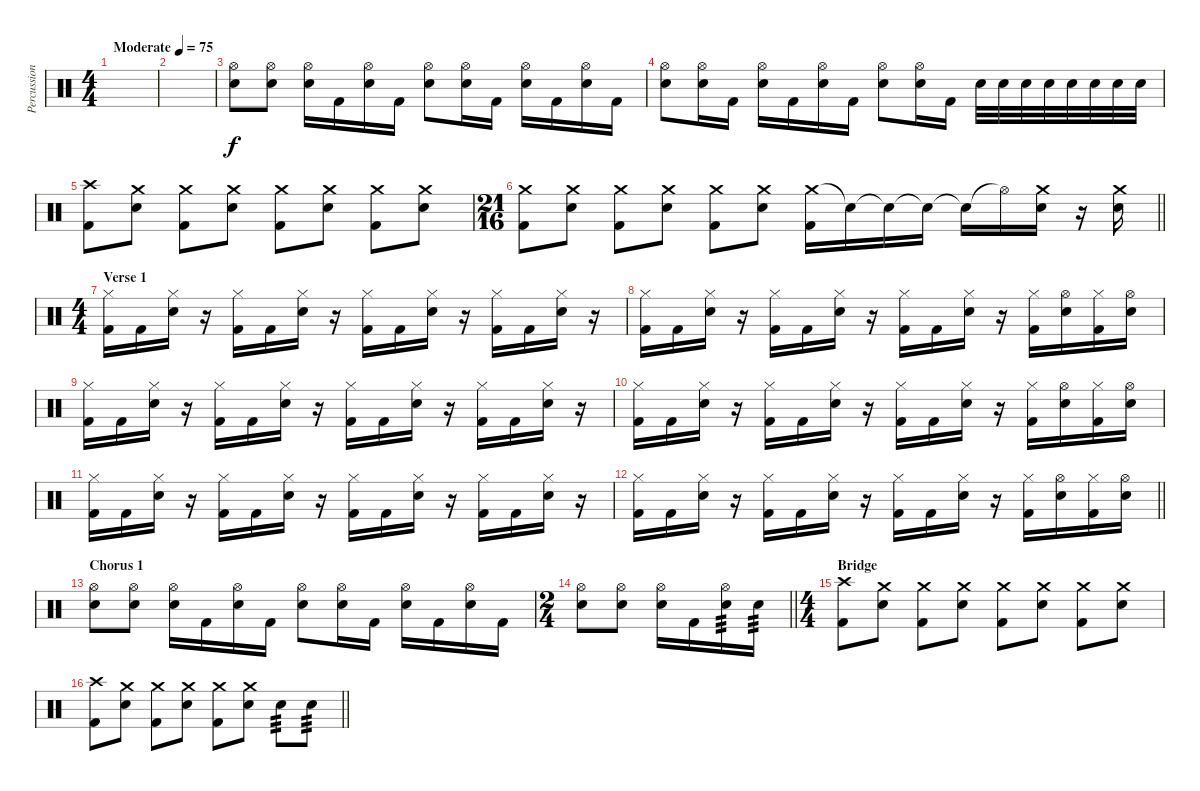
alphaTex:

\track ("Percussion" "Percussion") {instrument percussion}
\staff {score}
\articulation defaults
\ts (4 4)
\tempo (75 "Moderate")
\clef neutral
\ks c
|
|
("Hi-Hat (open)" "Snare (hit) 2").8 ("Hi-Hat (open)" "Snare (hit) 2").8 ("Hi-Hat (open)" "Snare (hit) 2").16 "Kick (hit) 2".16 ("Hi-Hat (open)" "Snare (hit) 2").16 "Kick (hit) 2".16 ("Hi-Hat (open)" "Snare (hit) 2").8 ("Hi-Hat (open)" "Snare (hit) 2").16 "Kick (hit) 2".16 ("Hi-Hat (open)" "Snare (hit) 2").16 "Kick (hit) 2".16 ("Hi-Hat (open)" "Snare (hit) 2").16 "Kick (hit) 2".16 |
("Hi-Hat (open)" "Snare (hit) 2").8 ("Hi-Hat (open)" "Snare (hit) 2").16 "Kick (hit) 2".16 ("Hi-Hat (open)" "Snare (hit) 2").16 "Kick (hit) 2".16 ("Hi-Hat (open)" "Snare (hit) 2").16 "Kick (hit) 2".16 ("Hi-Hat (open)" "Snare (hit) 2").8 ("Hi-Hat (open)" "Snare (hit) 2").16 "Kick (hit) 2".16 "Snare (hit) 2".32 "Snare (hit) 2".32 "Snare (hit) 2".32 "Snare (hit) 2".32 "Snare (hit) 2".32 "Snare (hit) 2".32 "Snare (hit) 2".32 "Snare (hit) 2".32 |
("Crash high (hit)" "Kick (hit) 2").8 ("Crash medium (hit)" "Snare (hit) 2").8 ("Crash medium (hit)" "Kick (hit) 2").8 ("Crash medium (hit)" "Snare (hit) 2").8 ("Crash medium (hit)" "Kick (hit) 2").8 ("Crash medium (hit)" "Snare (hit) 2").8 ("Crash medium (hit)" "Kick (hit) 2").8 ("Crash medium (hit)" "Snare (hit) 2").8 |
\ts (21 16)
\barLineRight lightlight
("Crash medium (hit)" "Kick (hit) 2").8 ("Crash medium (hit)" "Snare (hit) 2").8 ("Crash medium (hit)" "Kick (hit) 2").8 ("Crash medium (hit)" "Snare (hit) 2").8 ("Crash medium (hit)" "Kick (hit) 2").8 ("Crash medium (hit)" "Snare (hit) 2").8 ("Crash medium (hit)" "Kick (hit) 2").16 "Snare (hit)"{t}.16 "Snare (hit)"{t}.16 "Snare (hit)"{t}.16 "Snare (hit)"{t}.16 "Hi-Hat (open)"{t}.16 ("Crash medium (hit)" "Electric Snare (hit)").16 r.16 ("Crash medium (hit)" "Electric Snare (hit)").16 |
\ts (4 4)
\section ("" "Verse 1")
("Hi-Hat (closed)" "Kick (hit) 2").16 "Kick (hit) 2".16 ("Hi-Hat (closed)" "Electric Snare (hit)").16 r.16 ("Hi-Hat (closed)" "Kick (hit) 2").16 "Kick (hit) 2".16 ("Hi-Hat (closed)" "Electric Snare (hit)").16 r.16 ("Hi-Hat (closed)" "Kick (hit) 2").16 "Kick (hit) 2".16 ("Hi-Hat (closed)" "Electric Snare (hit)").16 r.16 ("Hi-Hat (closed)" "Kick (hit) 2").16 "Kick (hit) 2".16 ("Hi-Hat (closed)" "Electric Snare (hit)").16 r.16 |
("Hi-Hat (closed)" "Kick (hit) 2").16 "Kick (hit) 2".16 ("Hi-Hat (closed)" "Electric Snare (hit)").16 r.16 ("Hi-Hat (closed)" "Kick (hit) 2").16 "Kick (hit) 2".16 ("Hi-Hat (closed)" "Electric Snare (hit)").16 r.16 ("Hi-Hat (closed)" "Kick (hit) 2").16 "Kick (hit) 2".16 ("Hi-Hat (closed)" "Electric Snare (hit)").16 r.16 ("Hi-Hat (closed)" "Kick (hit) 2").16 ("Hi-Hat (open)" "Electric Snare (hit)").16 ("Hi-Hat (closed)" "Kick (hit) 2").16 ("Hi-Hat (open)" "Electric Snare (hit)").16 |
("Hi-Hat (closed)" "Kick (hit) 2").16 "Kick (hit) 2".16 ("Hi-Hat (closed)" "Electric Snare (hit)").16 r.16 ("Hi-Hat (closed)" "Kick (hit) 2").16 "Kick (hit) 2".16 ("Hi-Hat (closed)" "Electric Snare (hit)").16 r.16 ("Hi-Hat (closed)" "Kick (hit) 2").16 "Kick (hit) 2".16 ("Hi-Hat (closed)" "Electric Snare (hit)").16 r.16 ("Hi-Hat (closed)" "Kick (hit) 2").16 "Kick (hit) 2".16 ("Hi-Hat (closed)" "Electric Snare (hit)").16 r.16 |
("Hi-Hat (closed)" "Kick (hit) 2").16 "Kick (hit) 2".16 ("Hi-Hat (closed)" "Electric Snare (hit)").16 r.16 ("Hi-Hat (closed)" "Kick (hit) 2").16 "Kick (hit) 2".16 ("Hi-Hat (closed)" "Electric Snare (hit)").16 r.16 ("Hi-Hat (closed)" "Kick (hit) 2").16 "Kick (hit) 2".16 ("Hi-Hat (closed)" "Electric Snare (hit)").16 r.16 ("Hi-Hat (closed)" "Kick (hit) 2").16 ("Hi-Hat (open)" "Electric Snare (hit)").16 ("Hi-Hat (closed)" "Kick (hit) 2").16 ("Hi-Hat (open)" "Electric Snare (hit)").16 |
("Hi-Hat (closed)" "Kick (hit) 2").16 "Kick (hit) 2".16 ("Hi-Hat (closed)" "Electric Snare (hit)").16 r.16 ("Hi-Hat (closed)" "Kick (hit) 2").16 "Kick (hit) 2".16 ("Hi-Hat (closed)" "Electric Snare (hit)").16 r.16 ("Hi-Hat (closed)" "Kick (hit) 2").16 "Kick (hit) 2".16 ("Hi-Hat (closed)" "Electric Snare (hit)").16 r.16 ("Hi-Hat (closed)" "Kick (hit) 2").16 "Kick (hit) 2".16 ("Hi-Hat (closed)" "Electric Snare (hit)").16 r.16 |
\barLineRight lightlight
("Hi-Hat (closed)" "Kick (hit) 2").16 "Kick (hit) 2".16 ("Hi-Hat (closed)" "Electric Snare (hit)").16 r.16 ("Hi-Hat (closed)" "Kick (hit) 2").16 "Kick (hit) 2".16 ("Hi-Hat (closed)" "Electric Snare (hit)").16 r.16 ("Hi-Hat (closed)" "Kick (hit) 2").16 "Kick (hit) 2".16 ("Hi-Hat (closed)" "Electric Snare (hit)").16 r.16 ("Hi-Hat (closed)" "Kick (hit) 2").16 ("Hi-Hat (open)" "Electric Snare (hit)").16 ("Hi-Hat (closed)" "Kick (hit) 2").16 ("Hi-Hat (open)" "Electric Snare (hit)").16 |
\section ("" "Chorus 1")
("Hi-Hat (open)" "Snare (hit) 2").8 ("Hi-Hat (open)" "Snare (hit) 2").8 ("Hi-Hat (open)" "Snare (hit) 2").16 "Kick (hit) 2".16 ("Hi-Hat (open)" "Snare (hit) 2").16 "Kick (hit) 2".16 ("Hi-Hat (open)" "Snare (hit) 2").8 ("Hi-Hat (open)" "Snare (hit) 2").16 "Kick (hit) 2".16 ("Hi-Hat (open)" "Snare (hit) 2").16 "Kick (hit) 2".16 ("Hi-Hat (open)" "Snare (hit) 2").16 "Kick (hit) 2".16 |
\ts (2 4)
\barLineRight lightlight
("Hi-Hat (open)" "Snare (hit) 2").8 ("Hi-Hat (open)" "Snare (hit) 2").8 ("Hi-Hat (open)" "Snare (hit) 2").16 "Kick (hit) 2".16 ("Hi-Hat (open)" "Snare (hit) 2").16{tp 3} "Snare (hit) 2".16{tp 3} |
\ts (4 4)
\section ("" "Bridge")
("Crash high (hit)" "Kick (hit) 2").8 ("Crash medium (hit)" "Snare (hit) 2").8 ("Crash medium (hit)" "Kick (hit) 2").8 ("Crash medium (hit)" "Snare (hit) 2").8 ("Crash medium (hit)" "Kick (hit) 2").8 ("Crash medium (hit)" "Snare (hit) 2").8 ("Crash medium (hit)" "Kick (hit) 2").8 ("Crash medium (hit)" "Snare (hit) 2").8 |
\barLineRight lightlight
("Crash high (hit)" "Kick (hit) 2").8 ("Crash medium (hit)" "Snare (hit) 2").8 ("Crash medium (hit)" "Kick (hit) 2").8 ("Crash medium (hit)" "Snare (hit) 2").8 ("Crash medium (hit)" "Kick (hit) 2").8 ("Crash medium (hit)" "Snare (hit) 2").8 "Electric Snare (hit)".8{tp 3} "Electric Snare (hit)".8{tp 3}
